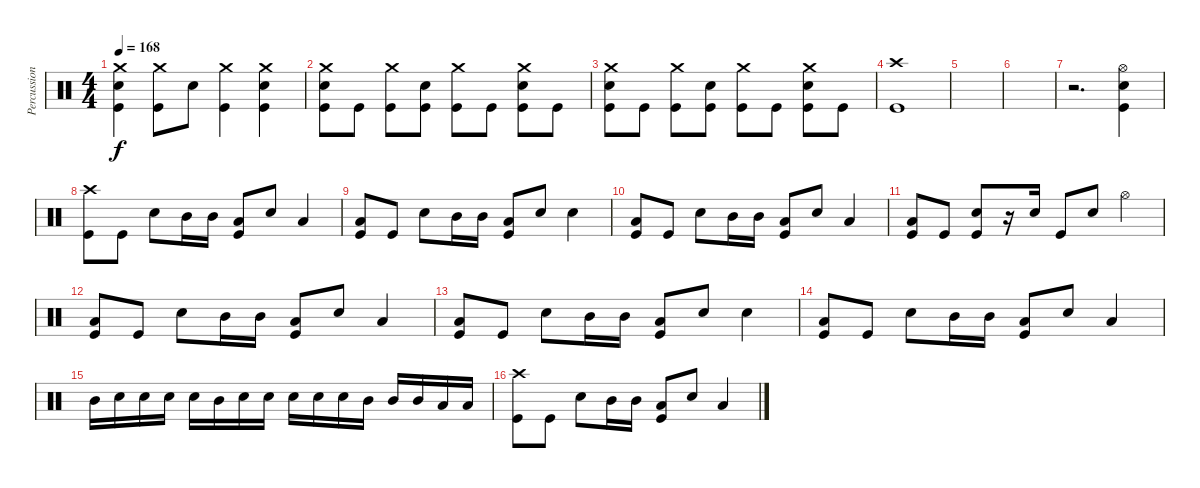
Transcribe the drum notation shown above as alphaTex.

\track ("Percussion" "Percussion") {instrument percussion}
\staff {score}
\articulation defaults
\ts (4 4)
\tempo 168
\clef neutral
\ks c
("Crash medium (hit)" "Electric Snare (hit)" "Kick (hit)").4{dy f} ("Crash medium (hit)" "Kick (hit)").8 "Electric Snare (hit)".8 ("Crash medium (hit)" "Kick (hit)").4 ("Crash medium (hit)" "Electric Snare (hit)" "Kick (hit)").4 |
("Crash medium (hit)" "Electric Snare (hit)" "Kick (hit)").8 "Kick (hit)".8 ("Crash medium (hit)" "Kick (hit)").8 ("Electric Snare (hit)" "Kick (hit)").8 ("Crash medium (hit)" "Kick (hit)").8 "Kick (hit)".8 ("Crash medium (hit)" "Electric Snare (hit)" "Kick (hit)").8 "Kick (hit)".8 |
("Crash medium (hit)" "Electric Snare (hit)" "Kick (hit)").8 "Kick (hit)".8 ("Crash medium (hit)" "Kick (hit)").8 ("Electric Snare (hit)" "Kick (hit)").8 ("Crash medium (hit)" "Kick (hit)").8 "Kick (hit)".8 ("Crash medium (hit)" "Electric Snare (hit)" "Kick (hit)").8 "Kick (hit)".8 |
("Crash high (hit)" "Kick (hit)").1 |
|
|
r.2{d} ("Hi-Hat (open)" "Electric Snare (hit)" "Kick (hit)").4 |
("Crash high (hit)" "Kick (hit)").8 "Kick (hit)".8 "Electric Snare (hit)".8 "Mid Tom (hit)".16 "Mid Tom (hit)".16 ("Low Tom (hit)" "Kick (hit)").8 "Electric Snare (hit)".8 "Low Tom (hit)".4 |
("Low Tom (hit)" "Kick (hit)").8 "Kick (hit)".8 "Electric Snare (hit)".8 "Mid Tom (hit)".16 "Mid Tom (hit)".16 ("Low Tom (hit)" "Kick (hit)").8 "Electric Snare (hit)".8 "Electric Snare (hit)".4 |
("Low Tom (hit)" "Kick (hit)").8 "Kick (hit)".8 "Electric Snare (hit)".8 "Mid Tom (hit)".16 "Mid Tom (hit)".16 ("Low Tom (hit)" "Kick (hit)").8 "Electric Snare (hit)".8 "Low Tom (hit)".4 |
("Low Tom (hit)" "Kick (hit)").8 "Kick (hit)".8 ("Electric Snare (hit)" "Kick (hit)").8 r.16 "Electric Snare (hit)".16 "Kick (hit)".8 "Electric Snare (hit)".8 "Hi-Hat (open)".4 |
("Low Tom (hit)" "Kick (hit)").8 "Kick (hit)".8 "Electric Snare (hit)".8 "Mid Tom (hit)".16 "Mid Tom (hit)".16 ("Low Tom (hit)" "Kick (hit)").8 "Electric Snare (hit)".8 "Low Tom (hit)".4 |
("Low Tom (hit)" "Kick (hit)").8 "Kick (hit)".8 "Electric Snare (hit)".8 "Mid Tom (hit)".16 "Mid Tom (hit)".16 ("Low Tom (hit)" "Kick (hit)").8 "Electric Snare (hit)".8 "Electric Snare (hit)".4 |
("Low Tom (hit)" "Kick (hit)").8 "Kick (hit)".8 "Electric Snare (hit)".8 "Mid Tom (hit)".16 "Mid Tom (hit)".16 ("Low Tom (hit)" "Kick (hit)").8 "Electric Snare (hit)".8 "Low Tom (hit)".4 |
"Mid Tom (hit)".16 "Electric Snare (hit)".16 "Electric Snare (hit)".16 "Electric Snare (hit)".16 "Electric Snare (hit)".16 "Mid Tom (hit)".16 "Electric Snare (hit)".16 "Electric Snare (hit)".16 "Electric Snare (hit)".16 "Electric Snare (hit)".16 "Electric Snare (hit)".16 "Mid Tom (hit)".16 "Mid Tom (hit)".16 "Mid Tom (hit)".16 "Low Tom (hit)".16 "Low Tom (hit)".16 |
("Crash high (hit)" "Kick (hit)").8 "Kick (hit)".8 "Electric Snare (hit)".8 "Mid Tom (hit)".16 "Mid Tom (hit)".16 ("Low Tom (hit)" "Kick (hit)").8 "Electric Snare (hit)".8 "Low Tom (hit)".4
